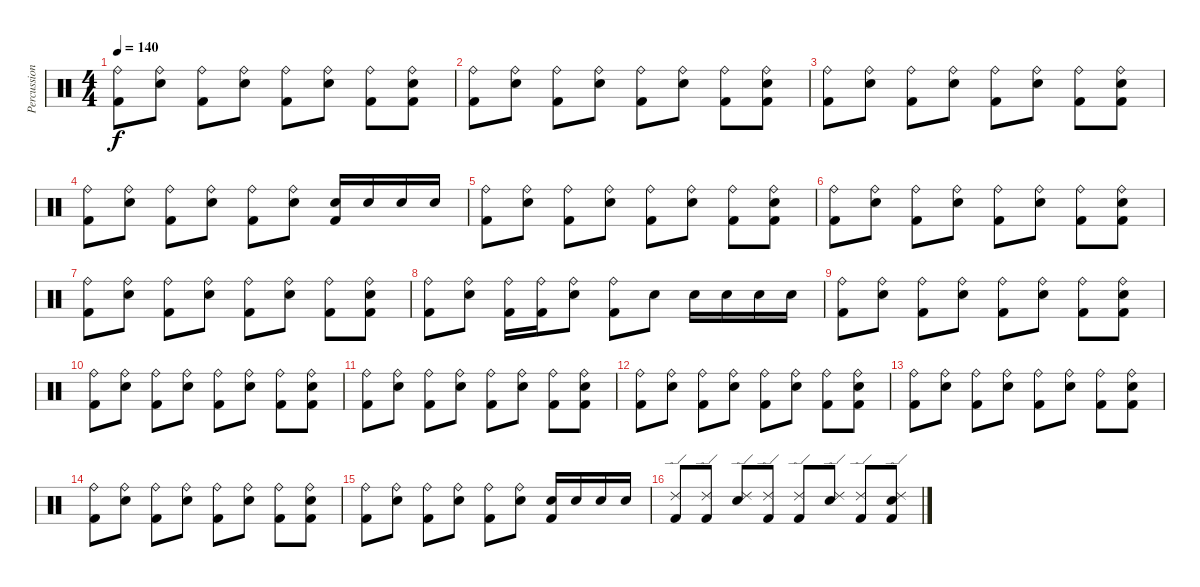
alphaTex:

\track ("Percussion" "Percussion") {instrument percussion}
\staff {score}
\articulation defaults
\ts (4 4)
\tempo 140
\clef neutral
\ks c
("Kick (hit) 2" "Ride (bell)").8{dy f} ("Snare (hit) 2" "Ride (bell)").8 ("Kick (hit) 2" "Ride (bell)").8 ("Snare (hit) 2" "Ride (bell)").8 ("Kick (hit) 2" "Ride (bell)").8 ("Snare (hit) 2" "Ride (bell)").8 ("Kick (hit) 2" "Ride (bell)").8 ("Kick (hit) 2" "Snare (hit) 2" "Ride (bell)").8 |
("Kick (hit) 2" "Ride (bell)").8 ("Snare (hit) 2" "Ride (bell)").8 ("Kick (hit) 2" "Ride (bell)").8 ("Snare (hit) 2" "Ride (bell)").8 ("Kick (hit) 2" "Ride (bell)").8 ("Snare (hit) 2" "Ride (bell)").8 ("Kick (hit) 2" "Ride (bell)").8 ("Kick (hit) 2" "Snare (hit) 2" "Ride (bell)").8 |
("Kick (hit) 2" "Ride (bell)").8 ("Snare (hit) 2" "Ride (bell)").8 ("Kick (hit) 2" "Ride (bell)").8 ("Snare (hit) 2" "Ride (bell)").8 ("Kick (hit) 2" "Ride (bell)").8 ("Snare (hit) 2" "Ride (bell)").8 ("Kick (hit) 2" "Ride (bell)").8 ("Kick (hit) 2" "Snare (hit) 2" "Ride (bell)").8 |
("Kick (hit) 2" "Ride (bell)").8 ("Snare (hit) 2" "Ride (bell)").8 ("Kick (hit) 2" "Ride (bell)").8 ("Snare (hit) 2" "Ride (bell)").8 ("Kick (hit) 2" "Ride (bell)").8 ("Snare (hit) 2" "Ride (bell)").8 ("Kick (hit) 2" "Snare (hit) 2").16 "Snare (hit) 2".16 "Snare (hit) 2".16 "Snare (hit) 2".16 |
("Kick (hit) 2" "Ride (bell)").8 ("Snare (hit) 2" "Ride (bell)").8 ("Kick (hit) 2" "Ride (bell)").8 ("Snare (hit) 2" "Ride (bell)").8 ("Kick (hit) 2" "Ride (bell)").8 ("Snare (hit) 2" "Ride (bell)").8 ("Kick (hit) 2" "Ride (bell)").8 ("Kick (hit) 2" "Snare (hit) 2" "Ride (bell)").8 |
("Kick (hit) 2" "Ride (bell)").8 ("Snare (hit) 2" "Ride (bell)").8 ("Kick (hit) 2" "Ride (bell)").8 ("Snare (hit) 2" "Ride (bell)").8 ("Kick (hit) 2" "Ride (bell)").8 ("Snare (hit) 2" "Ride (bell)").8 ("Kick (hit) 2" "Ride (bell)").8 ("Kick (hit) 2" "Snare (hit) 2" "Ride (bell)").8 |
("Kick (hit) 2" "Ride (bell)").8 ("Snare (hit) 2" "Ride (bell)").8 ("Kick (hit) 2" "Ride (bell)").8 ("Snare (hit) 2" "Ride (bell)").8 ("Kick (hit) 2" "Ride (bell)").8 ("Snare (hit) 2" "Ride (bell)").8 ("Kick (hit) 2" "Ride (bell)").8 ("Kick (hit) 2" "Snare (hit) 2" "Ride (bell)").8 |
("Kick (hit) 2" "Ride (bell)").8 ("Snare (hit) 2" "Ride (bell)").8 ("Kick (hit) 2" "Ride (bell)").16 ("Kick (hit) 2" "Ride (bell)").16 ("Snare (hit) 2" "Ride (bell)").8 ("Kick (hit) 2" "Ride (bell)").8 "Snare (hit) 2".8 "Snare (hit) 2".16 "Snare (hit) 2".16 "Snare (hit) 2".16 "Snare (hit) 2".16 |
("Kick (hit) 2" "Ride (bell)").8 ("Snare (hit) 2" "Ride (bell)").8 ("Kick (hit) 2" "Ride (bell)").8 ("Snare (hit) 2" "Ride (bell)").8 ("Kick (hit) 2" "Ride (bell)").8 ("Snare (hit) 2" "Ride (bell)").8 ("Kick (hit) 2" "Ride (bell)").8 ("Kick (hit) 2" "Snare (hit) 2" "Ride (bell)").8 |
("Kick (hit) 2" "Ride (bell)").8 ("Snare (hit) 2" "Ride (bell)").8 ("Kick (hit) 2" "Ride (bell)").8 ("Snare (hit) 2" "Ride (bell)").8 ("Kick (hit) 2" "Ride (bell)").8 ("Snare (hit) 2" "Ride (bell)").8 ("Kick (hit) 2" "Ride (bell)").8 ("Kick (hit) 2" "Snare (hit) 2" "Ride (bell)").8 |
("Kick (hit) 2" "Ride (bell)").8 ("Snare (hit) 2" "Ride (bell)").8 ("Kick (hit) 2" "Ride (bell)").8 ("Snare (hit) 2" "Ride (bell)").8 ("Kick (hit) 2" "Ride (bell)").8 ("Snare (hit) 2" "Ride (bell)").8 ("Kick (hit) 2" "Ride (bell)").8 ("Kick (hit) 2" "Snare (hit) 2" "Ride (bell)").8 |
("Kick (hit) 2" "Ride (bell)").8 ("Snare (hit) 2" "Ride (bell)").8 ("Kick (hit) 2" "Ride (bell)").8 ("Snare (hit) 2" "Ride (bell)").8 ("Kick (hit) 2" "Ride (bell)").8 ("Snare (hit) 2" "Ride (bell)").8 ("Kick (hit) 2" "Ride (bell)").8 ("Kick (hit) 2" "Snare (hit) 2" "Ride (bell)").8 |
("Kick (hit) 2" "Ride (bell)").8 ("Snare (hit) 2" "Ride (bell)").8 ("Kick (hit) 2" "Ride (bell)").8 ("Snare (hit) 2" "Ride (bell)").8 ("Kick (hit) 2" "Ride (bell)").8 ("Snare (hit) 2" "Ride (bell)").8 ("Kick (hit) 2" "Ride (bell)").8 ("Kick (hit) 2" "Snare (hit) 2" "Ride (bell)").8 |
("Kick (hit) 2" "Ride (bell)").8 ("Snare (hit) 2" "Ride (bell)").8 ("Kick (hit) 2" "Ride (bell)").8 ("Snare (hit) 2" "Ride (bell)").8 ("Kick (hit) 2" "Ride (bell)").8 ("Snare (hit) 2" "Ride (bell)").8 ("Kick (hit) 2" "Ride (bell)").8 ("Kick (hit) 2" "Snare (hit) 2" "Ride (bell)").8 |
("Kick (hit) 2" "Ride (bell)").8 ("Snare (hit) 2" "Ride (bell)").8 ("Kick (hit) 2" "Ride (bell)").8 ("Snare (hit) 2" "Ride (bell)").8 ("Kick (hit) 2" "Ride (bell)").8 ("Snare (hit) 2" "Ride (bell)").8 ("Kick (hit) 2" "Snare (hit) 2").16 "Snare (hit) 2".16 "Snare (hit) 2".16 "Snare (hit) 2".16 |
("Kick (hit) 2" "Ride (edge) 2").8 ("Kick (hit) 2" "Ride (edge) 2").8 ("Snare (hit) 2" "Ride (edge) 2").8 ("Kick (hit) 2" "Ride (edge) 2").8 ("Kick (hit) 2" "Ride (edge) 2").8 ("Snare (hit) 2" "Ride (edge) 2").8 ("Kick (hit) 2" "Ride (edge) 2").8 ("Kick (hit) 2" "Snare (hit) 2" "Ride (edge) 2").8
